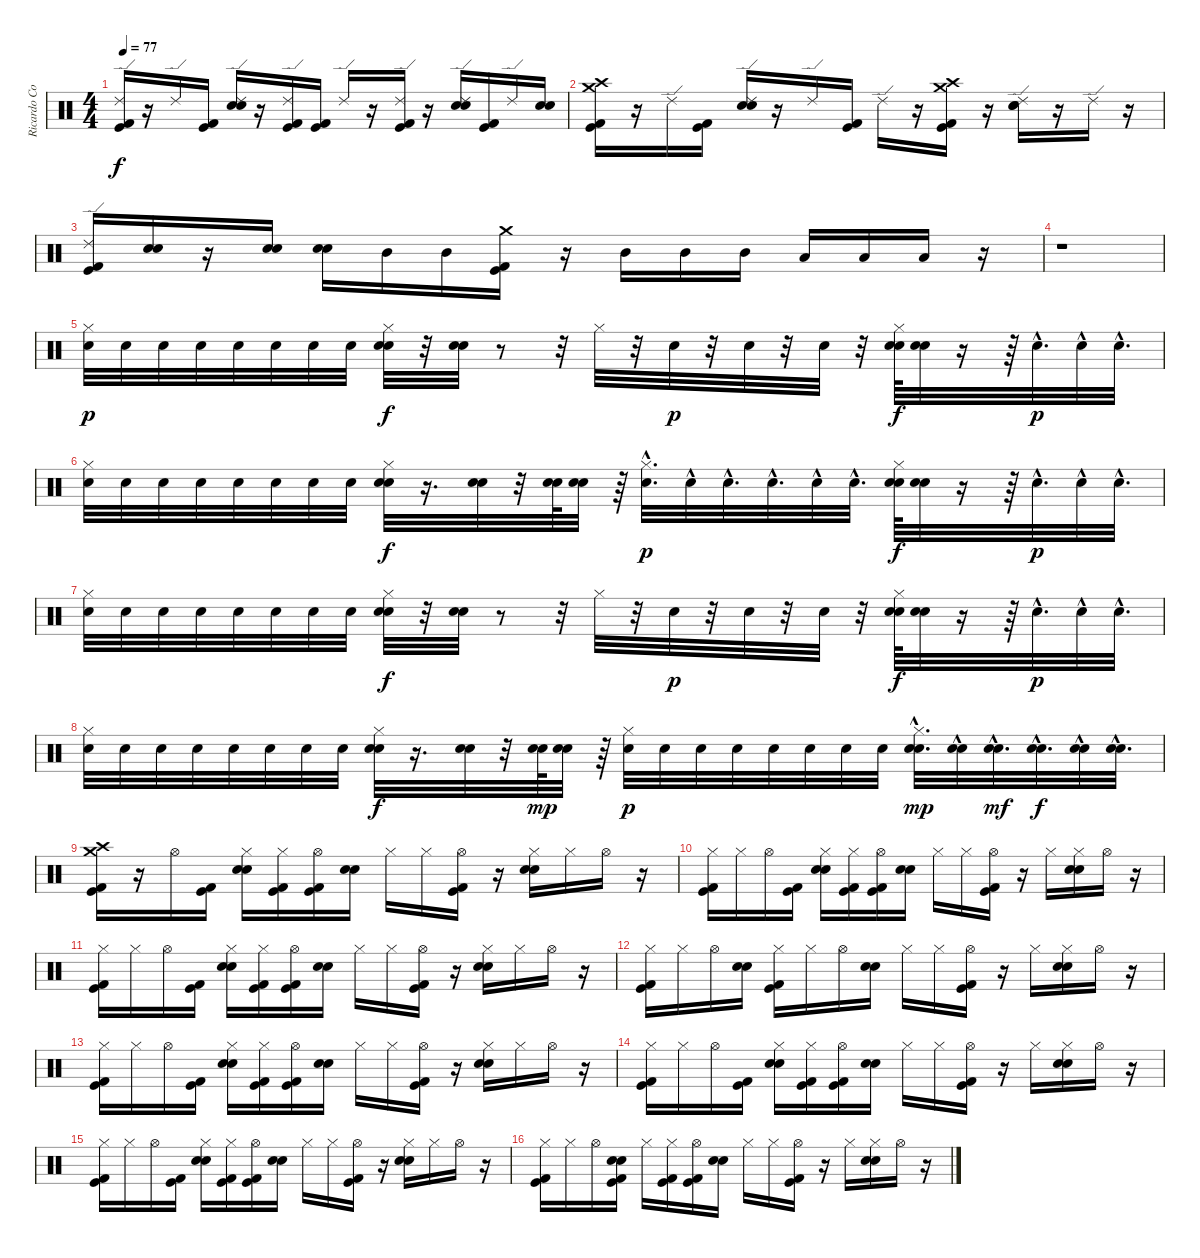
\track ("Ricardo Confessori" "Ricardo Co") {instrument percussion}
\staff {score}
\articulation defaults
\ts (4 4)
\tempo 77
\clef neutral
\ks c
("Ride (edge) 2" "Kick (hit) 2" "Kick (hit)").16{dy f} r.16 "Ride (edge) 2".16 ("Kick (hit) 2" "Kick (hit)").16 ("Ride (edge) 2" "Electric Snare (hit)" "Snare (hit) 2").16 r.16 ("Ride (edge) 2" "Kick (hit) 2" "Kick (hit)").16 ("Kick (hit) 2" "Kick (hit)").16 "Ride (edge) 2".16 r.16 ("Ride (edge) 2" "Kick (hit) 2" "Kick (hit)").16 r.16 ("Ride (edge) 2" "Electric Snare (hit)" "Snare (hit) 2").16 ("Kick (hit) 2" "Kick (hit)").16 "Ride (edge) 2".16 ("Electric Snare (hit)" "Snare (hit) 2").16 |
("Crash high (hit)" "Kick (hit) 2" "Crash medium (hit)" "Kick (hit)").16 r.16 "Ride (edge) 2".16 ("Kick (hit) 2" "Kick (hit)").16 ("Electric Snare (hit)" "Ride (edge) 2" "Snare (hit) 2").16 r.16 "Ride (edge) 2".16 ("Kick (hit) 2" "Kick (hit)").16 "Ride (edge) 2".16 r.16 ("Crash high (hit)" "Crash medium (hit)" "Kick (hit) 2" "Kick (hit)").16 r.16 ("Electric Snare (hit)" "Ride (edge) 2" "Snare (hit) 2").16 r.16 "Ride (edge) 2".16 r.16 |
("Kick (hit) 2" "Ride (edge) 2" "Kick (hit)").16 ("Electric Snare (hit)" "Snare (hit) 2").16 r.16 ("Electric Snare (hit)" "Snare (hit) 2").16 ("Electric Snare (hit)" "Snare (hit) 2").16 "Mid Tom (hit)".16 "Mid Tom (hit)".16 ("Crash medium (hit)" "Kick (hit) 2" "Kick (hit)").16 r.16 "Mid Tom (hit)".16 "Mid Tom (hit)".16 "Mid Tom (hit)".16 "Low Tom (hit)".16 "Low Tom (hit)".16 "Low Tom (hit)".16 r.16 |
r.1 |
("Hi-Hat (closed)" "Electric Snare (hit)").32{dy p} "Electric Snare (hit)".32 "Electric Snare (hit)".32 "Electric Snare (hit)".32 "Electric Snare (hit)".32 "Electric Snare (hit)".32 "Electric Snare (hit)".32 "Electric Snare (hit)".32 ("Hi-Hat (closed)" "Snare (hit) 2" "Electric Snare (hit)").32{dy f} r.32 ("Snare (hit) 2" "Electric Snare (hit)").32 r.8 r.32 "Hi-Hat (closed)".32 r.32 "Electric Snare (hit)".32{dy p} r.32 "Electric Snare (hit)".32 r.32 "Electric Snare (hit)".32 r.32 ("Hi-Hat (closed)" "Snare (hit) 2" "Electric Snare (hit)").64{dy f} ("Snare (hit) 2" "Electric Snare (hit)").32 r.16 r.64 "Electric Snare (hit)"{hac}.32{d dy p} "Electric Snare (hit)"{hac}.32 "Electric Snare (hit)"{hac}.32{d} |
("Electric Snare (hit)" "Hi-Hat (closed)").32 "Electric Snare (hit)".32 "Electric Snare (hit)".32 "Electric Snare (hit)".32 "Electric Snare (hit)".32 "Electric Snare (hit)".32 "Electric Snare (hit)".32 "Electric Snare (hit)".32 ("Snare (hit) 2" "Electric Snare (hit)" "Hi-Hat (closed)").32{dy f} r.16{d} ("Snare (hit) 2" "Electric Snare (hit)").32 r.32 ("Snare (hit) 2" "Electric Snare (hit)").64 ("Snare (hit) 2" "Electric Snare (hit)").32 r.64 ("Electric Snare (hit)"{hac} "Hi-Hat (closed)").32{d dy p} "Electric Snare (hit)"{hac}.32 "Electric Snare (hit)"{hac}.32{d} "Electric Snare (hit)"{hac}.32{d} "Electric Snare (hit)"{hac}.32 "Electric Snare (hit)"{hac}.32{d} ("Snare (hit) 2" "Electric Snare (hit)" "Hi-Hat (closed)").64{dy f} ("Snare (hit) 2" "Electric Snare (hit)").32 r.16 r.64 "Electric Snare (hit)"{hac}.32{d dy p} "Electric Snare (hit)"{hac}.32 "Electric Snare (hit)"{hac}.32{d} |
("Hi-Hat (closed)" "Electric Snare (hit)").32 "Electric Snare (hit)".32 "Electric Snare (hit)".32 "Electric Snare (hit)".32 "Electric Snare (hit)".32 "Electric Snare (hit)".32 "Electric Snare (hit)".32 "Electric Snare (hit)".32 ("Hi-Hat (closed)" "Snare (hit) 2" "Electric Snare (hit)").32{dy f} r.32 ("Snare (hit) 2" "Electric Snare (hit)").32 r.8 r.32 "Hi-Hat (closed)".32 r.32 "Electric Snare (hit)".32{dy p} r.32 "Electric Snare (hit)".32 r.32 "Electric Snare (hit)".32 r.32 ("Hi-Hat (closed)" "Snare (hit) 2" "Electric Snare (hit)").64{dy f} ("Snare (hit) 2" "Electric Snare (hit)").32 r.16 r.64 "Electric Snare (hit)"{hac}.32{d dy p} "Electric Snare (hit)"{hac}.32 "Electric Snare (hit)"{hac}.32{d} |
("Electric Snare (hit)" "Hi-Hat (closed)").32 "Electric Snare (hit)".32 "Electric Snare (hit)".32 "Electric Snare (hit)".32 "Electric Snare (hit)".32 "Electric Snare (hit)".32 "Electric Snare (hit)".32 "Electric Snare (hit)".32 ("Snare (hit) 2" "Electric Snare (hit)" "Hi-Hat (closed)").32{dy f} r.16{d} ("Snare (hit) 2" "Electric Snare (hit)").32 r.32 ("Electric Snare (hit)" "Snare (hit) 2").64{dy mp} ("Electric Snare (hit)" "Snare (hit) 2").32 r.64 ("Electric Snare (hit)" "Hi-Hat (closed)").32{dy p} "Electric Snare (hit)".32 "Electric Snare (hit)".32 "Electric Snare (hit)".32 "Electric Snare (hit)".32 "Electric Snare (hit)".32 "Electric Snare (hit)".32 "Electric Snare (hit)".32 ("Hi-Hat (closed)" "Snare (hit) 2"{hac} "Electric Snare (hit)"{hac}).32{d dy mp} ("Snare (hit) 2"{hac} "Electric Snare (hit)"{hac}).32 ("Snare (hit) 2"{hac} "Electric Snare (hit)"{hac}).32{d dy mf} ("Electric Snare (hit)"{hac} "Snare (hit) 2"{hac}).32{d dy f} ("Electric Snare (hit)"{hac} "Snare (hit) 2"{hac}).32 ("Electric Snare (hit)"{hac} "Snare (hit) 2"{hac}).32{d} |
("Crash high (hit)" "Crash medium (hit)" "Kick (hit) 2" "Kick (hit)").16 r.16 "Hi-Hat (open)".16 ("Kick (hit) 2" "Kick (hit)").16 ("Hi-Hat (closed)" "Electric Snare (hit)" "Snare (hit) 2").16 ("Kick (hit) 2" "Kick (hit)" "Hi-Hat (closed)").16 ("Kick (hit) 2" "Kick (hit)" "Hi-Hat (open)").16 ("Electric Snare (hit)" "Snare (hit) 2").16 "Hi-Hat (closed)".16 "Hi-Hat (closed)".16 ("Kick (hit)" "Kick (hit) 2" "Hi-Hat (open)").16 r.16 ("Electric Snare (hit)" "Snare (hit) 2" "Hi-Hat (closed)").16 "Hi-Hat (closed)".16 "Hi-Hat (open)".16 r.16 |
("Kick (hit)" "Kick (hit) 2" "Hi-Hat (closed)").16 "Hi-Hat (closed)".16 "Hi-Hat (open)".16 ("Kick (hit) 2" "Kick (hit)").16 ("Snare (hit) 2" "Electric Snare (hit)" "Hi-Hat (closed)").16 ("Kick (hit) 2" "Kick (hit)" "Hi-Hat (closed)").16 ("Kick (hit) 2" "Kick (hit)" "Hi-Hat (open)").16 ("Electric Snare (hit)" "Snare (hit) 2").16 "Hi-Hat (closed)".16 "Hi-Hat (closed)".16 ("Kick (hit) 2" "Kick (hit)" "Hi-Hat (open)").16 r.16 "Hi-Hat (closed)".16 ("Electric Snare (hit)" "Snare (hit) 2" "Hi-Hat (closed)").16 "Hi-Hat (open)".16 r.16 |
("Kick (hit) 2" "Kick (hit)" "Hi-Hat (closed)").16 "Hi-Hat (closed)".16 "Hi-Hat (open)".16 ("Kick (hit) 2" "Kick (hit)").16 ("Snare (hit) 2" "Electric Snare (hit)" "Hi-Hat (closed)").16 ("Kick (hit) 2" "Kick (hit)" "Hi-Hat (closed)").16 ("Kick (hit) 2" "Kick (hit)" "Hi-Hat (open)").16 ("Electric Snare (hit)" "Snare (hit) 2").16 "Hi-Hat (closed)".16 "Hi-Hat (closed)".16 ("Kick (hit) 2" "Kick (hit)" "Hi-Hat (open)").16 r.16 ("Electric Snare (hit)" "Snare (hit) 2" "Hi-Hat (closed)").16 "Hi-Hat (closed)".16 "Hi-Hat (open)".16 r.16 |
("Kick (hit) 2" "Kick (hit)" "Hi-Hat (closed)").16 "Hi-Hat (closed)".16 "Hi-Hat (open)".16 ("Snare (hit) 2" "Electric Snare (hit)").16 ("Kick (hit) 2" "Kick (hit)" "Hi-Hat (closed)").16 "Hi-Hat (closed)".16 "Hi-Hat (open)".16 ("Electric Snare (hit)" "Snare (hit) 2").16 "Hi-Hat (closed)".16 "Hi-Hat (closed)".16 ("Kick (hit) 2" "Kick (hit)" "Hi-Hat (open)").16 r.16 "Hi-Hat (closed)".16 ("Electric Snare (hit)" "Snare (hit) 2" "Hi-Hat (closed)").16 "Hi-Hat (open)".16 r.16 |
("Kick (hit) 2" "Kick (hit)" "Hi-Hat (closed)").16 "Hi-Hat (closed)".16 "Hi-Hat (open)".16 ("Kick (hit) 2" "Kick (hit)").16 ("Snare (hit) 2" "Electric Snare (hit)" "Hi-Hat (closed)").16 ("Kick (hit) 2" "Kick (hit)" "Hi-Hat (closed)").16 ("Kick (hit) 2" "Kick (hit)" "Hi-Hat (open)").16 ("Electric Snare (hit)" "Snare (hit) 2").16 "Hi-Hat (closed)".16 "Hi-Hat (closed)".16 ("Kick (hit) 2" "Kick (hit)" "Hi-Hat (open)").16 r.16 ("Electric Snare (hit)" "Snare (hit) 2" "Hi-Hat (closed)").16 "Hi-Hat (closed)".16 "Hi-Hat (open)".16 r.16 |
("Kick (hit) 2" "Kick (hit)" "Hi-Hat (closed)").16 "Hi-Hat (closed)".16 "Hi-Hat (open)".16 ("Kick (hit) 2" "Kick (hit)").16 ("Electric Snare (hit)" "Snare (hit) 2" "Hi-Hat (closed)").16 ("Kick (hit) 2" "Kick (hit)" "Hi-Hat (closed)").16 ("Kick (hit) 2" "Kick (hit)" "Hi-Hat (open)").16 ("Electric Snare (hit)" "Snare (hit) 2").16 "Hi-Hat (closed)".16 "Hi-Hat (closed)".16 ("Kick (hit) 2" "Kick (hit)" "Hi-Hat (open)").16 r.16 "Hi-Hat (closed)".16 ("Electric Snare (hit)" "Snare (hit) 2" "Hi-Hat (closed)").16 "Hi-Hat (open)".16 r.16 |
("Kick (hit) 2" "Kick (hit)" "Hi-Hat (closed)").16 "Hi-Hat (closed)".16 "Hi-Hat (open)".16 ("Kick (hit) 2" "Kick (hit)").16 ("Electric Snare (hit)" "Snare (hit) 2" "Hi-Hat (closed)").16 ("Kick (hit)" "Kick (hit) 2" "Hi-Hat (closed)").16 ("Kick (hit) 2" "Kick (hit)" "Hi-Hat (open)").16 ("Electric Snare (hit)" "Snare (hit) 2").16 "Hi-Hat (closed)".16 "Hi-Hat (closed)".16 ("Kick (hit) 2" "Kick (hit)" "Hi-Hat (open)").16 r.16 ("Electric Snare (hit)" "Snare (hit) 2" "Hi-Hat (closed)").16 "Hi-Hat (closed)".16 "Hi-Hat (open)".16 r.16 |
("Kick (hit) 2" "Kick (hit)" "Hi-Hat (closed)").16 "Hi-Hat (closed)".16 "Hi-Hat (open)".16 ("Snare (hit) 2" "Electric Snare (hit)" "Kick (hit) 2" "Kick (hit)").16 "Hi-Hat (closed)".16 ("Kick (hit)" "Kick (hit) 2" "Hi-Hat (closed)").16 ("Kick (hit) 2" "Kick (hit)" "Hi-Hat (open)").16 ("Electric Snare (hit)" "Snare (hit) 2").16 "Hi-Hat (closed)".16 "Hi-Hat (closed)".16 ("Kick (hit) 2" "Kick (hit)" "Hi-Hat (open)").16 r.16 "Hi-Hat (closed)".16 ("Electric Snare (hit)" "Snare (hit) 2" "Hi-Hat (closed)").16 "Hi-Hat (open)".16 r.16
